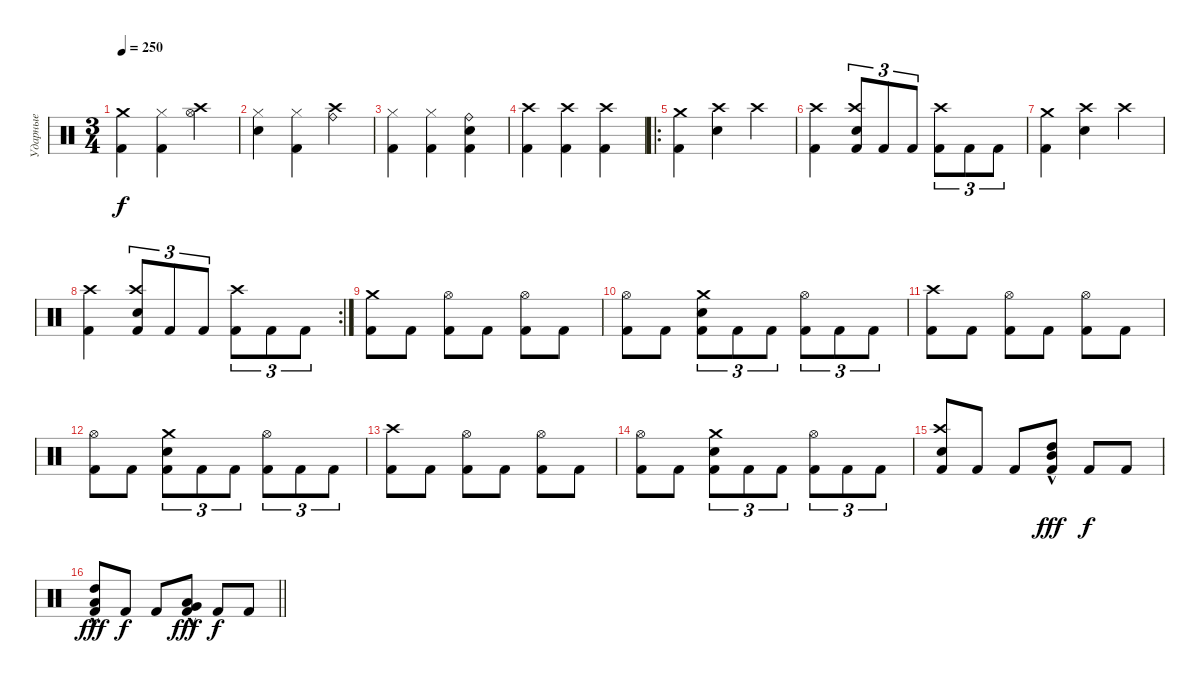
\track ("Ударные" "Ударные") {instrument percussion}
\staff {score}
\articulation defaults
\ts (3 4)
\tempo 250
\clef neutral
\ks c
("Crash medium (hit)" "Kick (hit) 2").4{dy f} ("Hi-Hat (closed)" "Kick (hit) 2").4 ("Crash high (hit)" "Hi-Hat (open)").4 |
("Hi-Hat (closed)" "Electric Snare (hit)").4 ("Hi-Hat (closed)" "Kick (hit) 2").4 ("Crash high (hit)" "Ride (bell)").4 |
("Hi-Hat (closed)" "Kick (hit) 2").4 ("Hi-Hat (closed)" "Kick (hit) 2").4 ("Kick (hit) 2" "Electric Snare (hit)" "Ride (bell)").4 |
("Crash high (hit)" "Kick (hit) 2").4 ("Crash high (hit)" "Kick (hit) 2").4 ("Crash high (hit)" "Kick (hit) 2").4 |
\ro
("Crash medium (hit)" "Kick (hit) 2").4 ("Crash high (hit)" "Electric Snare (hit)").4 "Crash high (hit)".4 |
("Crash high (hit)" "Kick (hit) 2").4 ("Electric Snare (hit)" "Crash high (hit)" "Kick (hit) 2").8{tu (3 2)} "Kick (hit) 2".8{tu (3 2)} "Kick (hit) 2".8{tu (3 2)} ("Crash high (hit)" "Kick (hit) 2").8{tu (3 2)} "Kick (hit) 2".8{tu (3 2)} "Kick (hit) 2".8{tu (3 2)} |
("Crash medium (hit)" "Kick (hit) 2").4 ("Crash high (hit)" "Electric Snare (hit)").4 "Crash high (hit)".4 |
\rc 2
("Crash high (hit)" "Kick (hit) 2").4 ("Electric Snare (hit)" "Crash high (hit)" "Kick (hit) 2").8{tu (3 2)} "Kick (hit) 2".8{tu (3 2)} "Kick (hit) 2".8{tu (3 2)} ("Crash high (hit)" "Kick (hit) 2").8{tu (3 2)} "Kick (hit) 2".8{tu (3 2)} "Kick (hit) 2".8{tu (3 2)} |
("Crash medium (hit)" "Kick (hit) 2").8 "Kick (hit) 2".8 ("Hi-Hat (open)" "Kick (hit) 2").8 "Kick (hit) 2".8 ("Hi-Hat (open)" "Kick (hit) 2").8 "Kick (hit) 2".8 |
("Hi-Hat (open)" "Kick (hit) 2").8 "Kick (hit) 2".8 ("Crash medium (hit)" "Electric Snare (hit)" "Kick (hit) 2").8{tu (3 2)} "Kick (hit) 2".8{tu (3 2)} "Kick (hit) 2".8{tu (3 2)} ("Hi-Hat (open)" "Kick (hit) 2").8{tu (3 2)} "Kick (hit) 2".8{tu (3 2)} "Kick (hit) 2".8{tu (3 2)} |
("Crash high (hit)" "Kick (hit) 2").8 "Kick (hit) 2".8 ("Hi-Hat (open)" "Kick (hit) 2").8 "Kick (hit) 2".8 ("Hi-Hat (open)" "Kick (hit) 2").8 "Kick (hit) 2".8 |
("Hi-Hat (open)" "Kick (hit) 2").8 "Kick (hit) 2".8 ("Crash medium (hit)" "Electric Snare (hit)" "Kick (hit) 2").8{tu (3 2)} "Kick (hit) 2".8{tu (3 2)} "Kick (hit) 2".8{tu (3 2)} ("Hi-Hat (open)" "Kick (hit) 2").8{tu (3 2)} "Kick (hit) 2".8{tu (3 2)} "Kick (hit) 2".8{tu (3 2)} |
("Crash high (hit)" "Kick (hit) 2").8 "Kick (hit) 2".8 ("Hi-Hat (open)" "Kick (hit) 2").8 "Kick (hit) 2".8 ("Hi-Hat (open)" "Kick (hit) 2").8 "Kick (hit) 2".8 |
("Hi-Hat (open)" "Kick (hit) 2").8 "Kick (hit) 2".8 ("Crash medium (hit)" "Electric Snare (hit)" "Kick (hit) 2").8{tu (3 2)} "Kick (hit) 2".8{tu (3 2)} "Kick (hit) 2".8{tu (3 2)} ("Hi-Hat (open)" "Kick (hit) 2").8{tu (3 2)} "Kick (hit) 2".8{tu (3 2)} "Kick (hit) 2".8{tu (3 2)} |
("Electric Snare (hit)" "Crash high (hit)" "Kick (hit) 2").8 "Kick (hit) 2".8 "Kick (hit) 2".8 ("High Tom (hit)"{hac} "Mid Tom (hit)"{hac} "Kick (hit) 2").8{dy fff} "Kick (hit) 2".8{dy f} "Kick (hit) 2".8 |
\barLineRight lightlight
("High Tom (hit)"{hac} "Low Tom (hit)"{hac} "Kick (hit) 2").8{dy fff} "Kick (hit) 2".8{dy f} "Kick (hit) 2".8 ("Low Tom (hit)"{hac} "Very Low Tom (hit)"{hac} "Kick (hit) 2").8{dy fff} "Kick (hit) 2".8{dy f} "Kick (hit) 2".8
